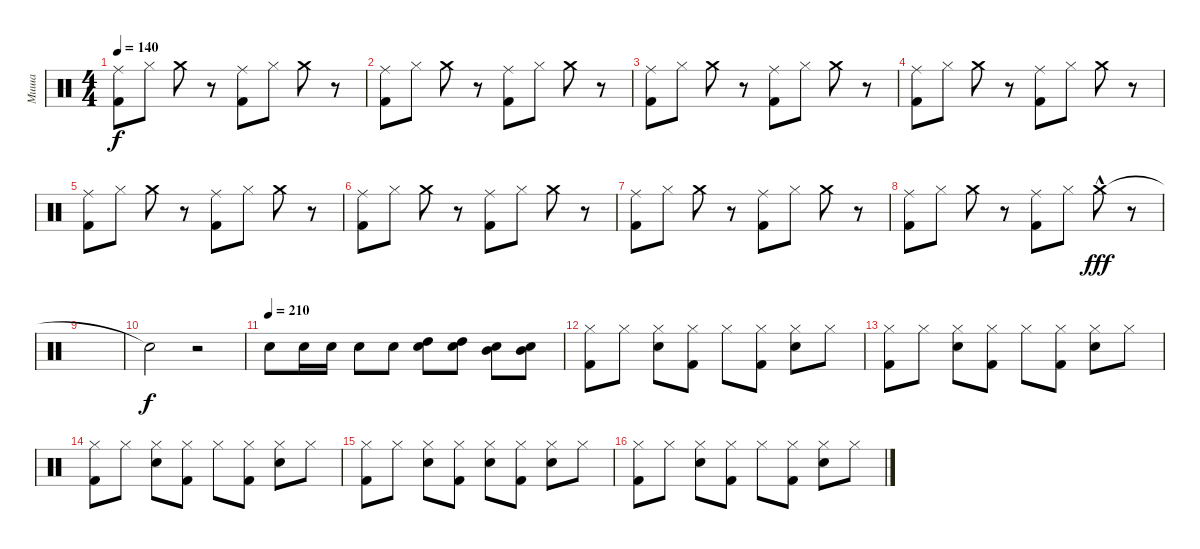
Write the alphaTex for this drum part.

\track ("Миша" "Миша") {instrument percussion}
\staff {score}
\articulation defaults
\ts (4 4)
\tempo 140
\clef neutral
\ks c
("Kick (hit) 2" "Ride (middle)").8{dy f} "Hi-Hat (closed)".8 "Crash medium (hit)".8 r.8 ("Kick (hit) 2" "Ride (middle)").8 "Hi-Hat (closed)".8 "Crash medium (hit)".8 r.8 |
("Kick (hit) 2" "Ride (middle)").8 "Hi-Hat (closed)".8 "Crash medium (hit)".8 r.8 ("Kick (hit) 2" "Ride (middle)").8 "Hi-Hat (closed)".8 "Crash medium (hit)".8 r.8 |
("Kick (hit) 2" "Ride (middle)").8 "Hi-Hat (closed)".8 "Crash medium (hit)".8 r.8 ("Kick (hit) 2" "Ride (middle)").8 "Hi-Hat (closed)".8 "Crash medium (hit)".8 r.8 |
("Kick (hit) 2" "Ride (middle)").8 "Hi-Hat (closed)".8 "Crash medium (hit)".8 r.8 ("Kick (hit) 2" "Ride (middle)").8 "Hi-Hat (closed)".8 "Crash medium (hit)".8 r.8 |
("Kick (hit) 2" "Ride (middle)").8 "Hi-Hat (closed)".8 "Crash medium (hit)".8 r.8 ("Kick (hit) 2" "Ride (middle)").8 "Hi-Hat (closed)".8 "Crash medium (hit)".8 r.8 |
("Kick (hit) 2" "Ride (middle)").8 "Hi-Hat (closed)".8 "Crash medium (hit)".8 r.8 ("Kick (hit) 2" "Ride (middle)").8 "Hi-Hat (closed)".8 "Crash medium (hit)".8 r.8 |
("Kick (hit) 2" "Ride (middle)").8 "Hi-Hat (closed)".8 "Crash medium (hit)".8 r.8 ("Kick (hit) 2" "Ride (middle)").8 "Hi-Hat (closed)".8 "Crash medium (hit)".8 r.8 |
("Kick (hit) 2" "Ride (middle)").8 "Hi-Hat (closed)".8 "Crash medium (hit)".8 r.8 ("Kick (hit) 2" "Ride (middle)").8 "Hi-Hat (closed)".8 "Crash medium (hit)"{hac}.8{dy fff} r.8 |
|
"Snare (hit)"{t}.2{dy f} r.2 |
\tempo (210)
"Snare (hit) 2".8 "Snare (hit) 2".16 "Snare (hit) 2".16 "Snare (hit) 2".8 "Snare (hit) 2".8 ("Snare (hit) 2" "High Tom (hit)").8 ("Snare (hit) 2" "High Tom (hit)").8 ("Snare (hit) 2" "Mid Tom (hit)").8 ("Snare (hit) 2" "Mid Tom (hit)").8 |
("Hi-Hat (closed)" "Kick (hit) 2").8 "Hi-Hat (closed)".8 ("Hi-Hat (closed)" "Snare (hit) 2").8 ("Hi-Hat (closed)" "Kick (hit) 2").8 "Hi-Hat (closed)".8 ("Hi-Hat (closed)" "Kick (hit) 2").8 ("Hi-Hat (closed)" "Snare (hit) 2").8 "Hi-Hat (closed)".8 |
("Hi-Hat (closed)" "Kick (hit) 2").8 "Hi-Hat (closed)".8 ("Hi-Hat (closed)" "Snare (hit) 2").8 ("Hi-Hat (closed)" "Kick (hit) 2").8 "Hi-Hat (closed)".8 ("Hi-Hat (closed)" "Kick (hit) 2").8 ("Hi-Hat (closed)" "Snare (hit) 2").8 "Hi-Hat (closed)".8 |
("Hi-Hat (closed)" "Kick (hit) 2").8 "Hi-Hat (closed)".8 ("Hi-Hat (closed)" "Snare (hit) 2").8 ("Hi-Hat (closed)" "Kick (hit) 2").8 "Hi-Hat (closed)".8 ("Hi-Hat (closed)" "Kick (hit) 2").8 ("Hi-Hat (closed)" "Snare (hit) 2").8 "Hi-Hat (closed)".8 |
("Hi-Hat (closed)" "Kick (hit) 2").8 "Hi-Hat (closed)".8 ("Hi-Hat (closed)" "Snare (hit) 2").8 ("Hi-Hat (closed)" "Kick (hit) 2").8 ("Hi-Hat (closed)" "Snare (hit) 2").8 ("Hi-Hat (closed)" "Kick (hit) 2").8 ("Hi-Hat (closed)" "Snare (hit) 2").8 "Hi-Hat (closed)".8 |
("Hi-Hat (closed)" "Kick (hit) 2").8 "Hi-Hat (closed)".8 ("Hi-Hat (closed)" "Snare (hit) 2").8 ("Hi-Hat (closed)" "Kick (hit) 2").8 "Hi-Hat (closed)".8 ("Hi-Hat (closed)" "Kick (hit) 2").8 ("Hi-Hat (closed)" "Snare (hit) 2").8 "Hi-Hat (closed)".8
